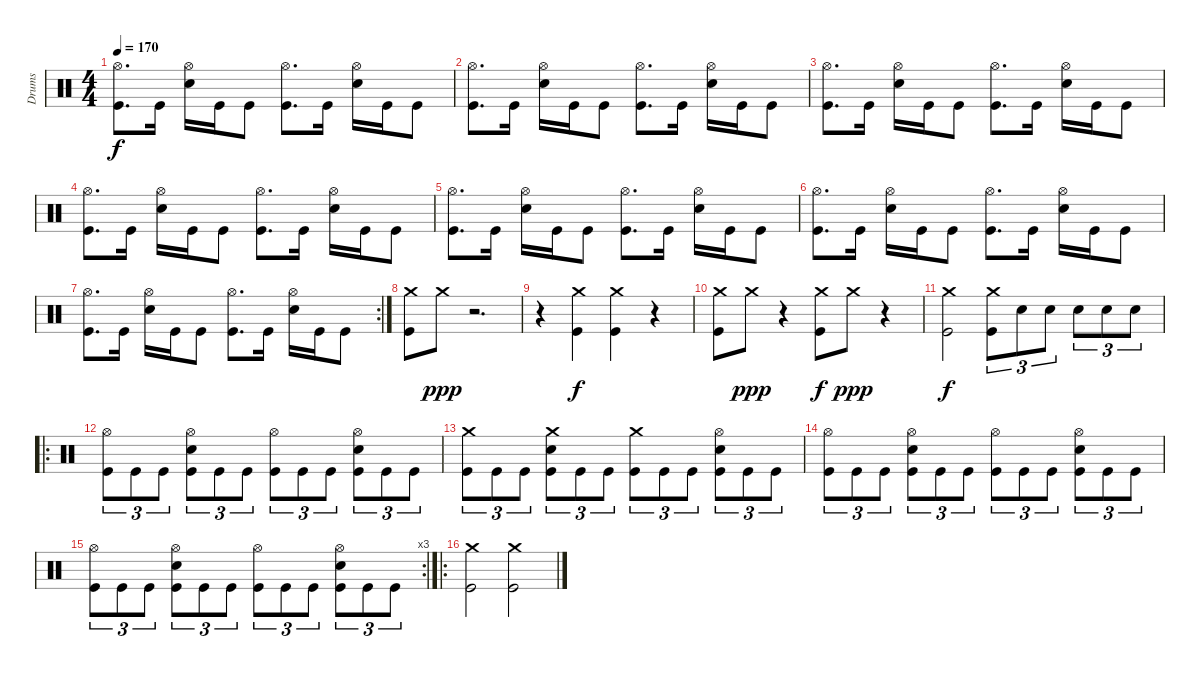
\track ("Drums" "Drums") {instrument percussion}
\staff {score}
\articulation defaults
\ts (4 4)
\tempo 170
\clef neutral
\ks c
("Hi-Hat (open)" "Kick (hit)").8{d dy f} "Kick (hit)".16 ("Hi-Hat (open)" "Snare (hit) 2").16 "Kick (hit)".16 "Kick (hit)".8 ("Hi-Hat (open)" "Kick (hit)").8{d} "Kick (hit)".16 ("Hi-Hat (open)" "Snare (hit) 2").16 "Kick (hit)".16 "Kick (hit)".8 |
("Hi-Hat (open)" "Kick (hit)").8{d} "Kick (hit)".16 ("Hi-Hat (open)" "Snare (hit) 2").16 "Kick (hit)".16 "Kick (hit)".8 ("Hi-Hat (open)" "Kick (hit)").8{d} "Kick (hit)".16 ("Hi-Hat (open)" "Snare (hit) 2").16 "Kick (hit)".16 "Kick (hit)".8 |
("Hi-Hat (open)" "Kick (hit)").8{d} "Kick (hit)".16 ("Hi-Hat (open)" "Snare (hit) 2").16 "Kick (hit)".16 "Kick (hit)".8 ("Hi-Hat (open)" "Kick (hit)").8{d} "Kick (hit)".16 ("Hi-Hat (open)" "Snare (hit) 2").16 "Kick (hit)".16 "Kick (hit)".8 |
("Hi-Hat (open)" "Kick (hit)").8{d} "Kick (hit)".16 ("Hi-Hat (open)" "Snare (hit) 2").16 "Kick (hit)".16 "Kick (hit)".8 ("Hi-Hat (open)" "Kick (hit)").8{d} "Kick (hit)".16 ("Hi-Hat (open)" "Snare (hit) 2").16 "Kick (hit)".16 "Kick (hit)".8 |
("Hi-Hat (open)" "Kick (hit)").8{d} "Kick (hit)".16 ("Hi-Hat (open)" "Snare (hit) 2").16 "Kick (hit)".16 "Kick (hit)".8 ("Hi-Hat (open)" "Kick (hit)").8{d} "Kick (hit)".16 ("Hi-Hat (open)" "Snare (hit) 2").16 "Kick (hit)".16 "Kick (hit)".8 |
("Hi-Hat (open)" "Kick (hit)").8{d} "Kick (hit)".16 ("Hi-Hat (open)" "Snare (hit) 2").16 "Kick (hit)".16 "Kick (hit)".8 ("Hi-Hat (open)" "Kick (hit)").8{d} "Kick (hit)".16 ("Hi-Hat (open)" "Snare (hit) 2").16 "Kick (hit)".16 "Kick (hit)".8 |
\rc 2
("Hi-Hat (open)" "Kick (hit)").8{d} "Kick (hit)".16 ("Hi-Hat (open)" "Snare (hit) 2").16 "Kick (hit)".16 "Kick (hit)".8 ("Hi-Hat (open)" "Kick (hit)").8{d} "Kick (hit)".16 ("Hi-Hat (open)" "Snare (hit) 2").16 "Kick (hit)".16 "Kick (hit)".8 |
("Crash medium (hit)" "Kick (hit)").8 "Crash medium (hit)".8{dy ppp} r.2{d} |
r.4 ("Crash medium (hit)" "Kick (hit)").4{dy f} ("Crash medium (hit)" "Kick (hit)").4 r.4 |
("Crash medium (hit)" "Kick (hit)").8 "Crash medium (hit)".8{dy ppp} r.4 ("Crash medium (hit)" "Kick (hit)").8{dy f} "Crash medium (hit)".8{dy ppp} r.4 |
("Crash medium (hit)" "Kick (hit)").2{dy f} ("Crash medium (hit)" "Kick (hit)").8{tu (3 2)} "Snare (hit) 2".8{tu (3 2)} "Snare (hit) 2".8{tu (3 2)} "Snare (hit) 2".8{tu (3 2)} "Snare (hit) 2".8{tu (3 2)} "Snare (hit) 2".8{tu (3 2)} |
\ro
("Hi-Hat (open)" "Kick (hit)").8{tu (3 2)} "Kick (hit)".8{tu (3 2)} "Kick (hit)".8{tu (3 2)} ("Hi-Hat (open)" "Snare (hit) 2" "Kick (hit)").8{tu (3 2)} "Kick (hit)".8{tu (3 2)} "Kick (hit)".8{tu (3 2)} ("Hi-Hat (open)" "Kick (hit)").8{tu (3 2)} "Kick (hit)".8{tu (3 2)} "Kick (hit)".8{tu (3 2)} ("Hi-Hat (open)" "Snare (hit) 2" "Kick (hit)").8{tu (3 2)} "Kick (hit)".8{tu (3 2)} "Kick (hit)".8{tu (3 2)} |
("Crash medium (hit)" "Kick (hit)").8{tu (3 2)} "Kick (hit)".8{tu (3 2)} "Kick (hit)".8{tu (3 2)} ("Crash medium (hit)" "Snare (hit) 2" "Kick (hit)").8{tu (3 2)} "Kick (hit)".8{tu (3 2)} "Kick (hit)".8{tu (3 2)} ("Crash medium (hit)" "Kick (hit)").8{tu (3 2)} "Kick (hit)".8{tu (3 2)} "Kick (hit)".8{tu (3 2)} ("Hi-Hat (open)" "Snare (hit) 2" "Kick (hit)").8{tu (3 2)} "Kick (hit)".8{tu (3 2)} "Kick (hit)".8{tu (3 2)} |
("Hi-Hat (open)" "Kick (hit)").8{tu (3 2)} "Kick (hit)".8{tu (3 2)} "Kick (hit)".8{tu (3 2)} ("Hi-Hat (open)" "Snare (hit) 2" "Kick (hit)").8{tu (3 2)} "Kick (hit)".8{tu (3 2)} "Kick (hit)".8{tu (3 2)} ("Hi-Hat (open)" "Kick (hit)").8{tu (3 2)} "Kick (hit)".8{tu (3 2)} "Kick (hit)".8{tu (3 2)} ("Hi-Hat (open)" "Snare (hit) 2" "Kick (hit)").8{tu (3 2)} "Kick (hit)".8{tu (3 2)} "Kick (hit)".8{tu (3 2)} |
\rc 3
("Hi-Hat (open)" "Kick (hit)").8{tu (3 2)} "Kick (hit)".8{tu (3 2)} "Kick (hit)".8{tu (3 2)} ("Hi-Hat (open)" "Snare (hit) 2" "Kick (hit)").8{tu (3 2)} "Kick (hit)".8{tu (3 2)} "Kick (hit)".8{tu (3 2)} ("Hi-Hat (open)" "Kick (hit)").8{tu (3 2)} "Kick (hit)".8{tu (3 2)} "Kick (hit)".8{tu (3 2)} ("Hi-Hat (open)" "Snare (hit) 2" "Kick (hit)").8{tu (3 2)} "Kick (hit)".8{tu (3 2)} "Kick (hit)".8{tu (3 2)} |
\ro
("Crash medium (hit)" "Kick (hit)").2 ("Crash medium (hit)" "Kick (hit)").2
